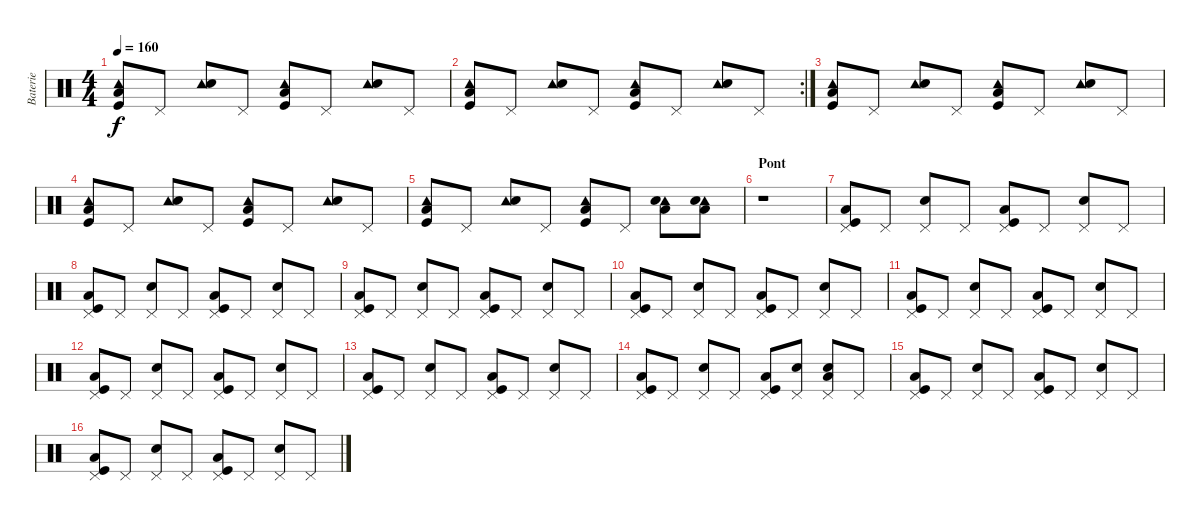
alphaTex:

\track ("Baterie" "Baterie") {instrument percussion}
\staff {score}
\articulation defaults
\ts (4 4)
\tempo 160
\clef neutral
\ks c
("Tambourine (hit)" "Low Floor Tom (hit)" "Kick (hit)").8{dy f} "Pedal Hi-Hat (hit)".8 ("Tambourine (hit)" "Electric Snare (hit)").8 "Pedal Hi-Hat (hit)".8 ("Tambourine (hit)" "Low Floor Tom (hit)" "Kick (hit)").8 "Pedal Hi-Hat (hit)".8 ("Tambourine (hit)" "Electric Snare (hit)").8 "Pedal Hi-Hat (hit)".8 |
\rc 2
("Tambourine (hit)" "Low Floor Tom (hit)" "Kick (hit)").8 "Pedal Hi-Hat (hit)".8 ("Tambourine (hit)" "Electric Snare (hit)").8 "Pedal Hi-Hat (hit)".8 ("Tambourine (hit)" "Low Floor Tom (hit)" "Kick (hit)").8 "Pedal Hi-Hat (hit)".8 ("Tambourine (hit)" "Electric Snare (hit)").8 "Pedal Hi-Hat (hit)".8 |
("Tambourine (hit)" "Low Floor Tom (hit)" "Kick (hit)").8 "Pedal Hi-Hat (hit)".8 ("Tambourine (hit)" "Electric Snare (hit)").8 "Pedal Hi-Hat (hit)".8 ("Tambourine (hit)" "Low Floor Tom (hit)" "Kick (hit)").8 "Pedal Hi-Hat (hit)".8 ("Tambourine (hit)" "Electric Snare (hit)").8 "Pedal Hi-Hat (hit)".8 |
("Tambourine (hit)" "Low Floor Tom (hit)" "Kick (hit)").8 "Pedal Hi-Hat (hit)".8 ("Tambourine (hit)" "Electric Snare (hit)").8 "Pedal Hi-Hat (hit)".8 ("Tambourine (hit)" "Low Floor Tom (hit)" "Kick (hit)").8 "Pedal Hi-Hat (hit)".8 ("Tambourine (hit)" "Electric Snare (hit)").8 "Pedal Hi-Hat (hit)".8 |
("Tambourine (hit)" "Low Floor Tom (hit)" "Kick (hit)").8 "Pedal Hi-Hat (hit)".8 ("Tambourine (hit)" "Electric Snare (hit)").8 "Pedal Hi-Hat (hit)".8 ("Tambourine (hit)" "Low Floor Tom (hit)" "Kick (hit)").8 "Pedal Hi-Hat (hit)".8 ("Tambourine (hit)" "Electric Snare (hit)" "Low Floor Tom (hit)").8 ("Tambourine (hit)" "Electric Snare (hit)" "Low Floor Tom (hit)").8 |
\section ("" "Pont")
r.1 |
("Pedal Hi-Hat (hit)" "Low Floor Tom (hit)" "Kick (hit)").8 "Pedal Hi-Hat (hit)".8 ("Pedal Hi-Hat (hit)" "Electric Snare (hit)").8 "Pedal Hi-Hat (hit)".8 ("Pedal Hi-Hat (hit)" "Low Floor Tom (hit)" "Kick (hit)").8 "Pedal Hi-Hat (hit)".8 ("Pedal Hi-Hat (hit)" "Electric Snare (hit)").8 "Pedal Hi-Hat (hit)".8 |
("Pedal Hi-Hat (hit)" "Low Floor Tom (hit)" "Kick (hit)").8 "Pedal Hi-Hat (hit)".8 ("Pedal Hi-Hat (hit)" "Electric Snare (hit)").8 "Pedal Hi-Hat (hit)".8 ("Pedal Hi-Hat (hit)" "Low Floor Tom (hit)" "Kick (hit)").8 "Pedal Hi-Hat (hit)".8 ("Pedal Hi-Hat (hit)" "Electric Snare (hit)").8 "Pedal Hi-Hat (hit)".8 |
("Pedal Hi-Hat (hit)" "Low Floor Tom (hit)" "Kick (hit)").8 "Pedal Hi-Hat (hit)".8 ("Pedal Hi-Hat (hit)" "Electric Snare (hit)").8 "Pedal Hi-Hat (hit)".8 ("Pedal Hi-Hat (hit)" "Low Floor Tom (hit)" "Kick (hit)").8 "Pedal Hi-Hat (hit)".8 ("Pedal Hi-Hat (hit)" "Electric Snare (hit)").8 "Pedal Hi-Hat (hit)".8 |
("Pedal Hi-Hat (hit)" "Low Floor Tom (hit)" "Kick (hit)").8 "Pedal Hi-Hat (hit)".8 ("Pedal Hi-Hat (hit)" "Electric Snare (hit)").8 "Pedal Hi-Hat (hit)".8 ("Pedal Hi-Hat (hit)" "Low Floor Tom (hit)" "Kick (hit)").8 "Pedal Hi-Hat (hit)".8 ("Pedal Hi-Hat (hit)" "Electric Snare (hit)").8 "Pedal Hi-Hat (hit)".8 |
("Pedal Hi-Hat (hit)" "Low Floor Tom (hit)" "Kick (hit)").8 "Pedal Hi-Hat (hit)".8 ("Pedal Hi-Hat (hit)" "Electric Snare (hit)").8 "Pedal Hi-Hat (hit)".8 ("Pedal Hi-Hat (hit)" "Low Floor Tom (hit)" "Kick (hit)").8 "Pedal Hi-Hat (hit)".8 ("Pedal Hi-Hat (hit)" "Electric Snare (hit)").8 "Pedal Hi-Hat (hit)".8 |
("Pedal Hi-Hat (hit)" "Low Floor Tom (hit)" "Kick (hit)").8 "Pedal Hi-Hat (hit)".8 ("Pedal Hi-Hat (hit)" "Electric Snare (hit)").8 "Pedal Hi-Hat (hit)".8 ("Pedal Hi-Hat (hit)" "Low Floor Tom (hit)" "Kick (hit)").8 "Pedal Hi-Hat (hit)".8 ("Pedal Hi-Hat (hit)" "Electric Snare (hit)").8 "Pedal Hi-Hat (hit)".8 |
("Pedal Hi-Hat (hit)" "Low Floor Tom (hit)" "Kick (hit)").8 "Pedal Hi-Hat (hit)".8 ("Pedal Hi-Hat (hit)" "Electric Snare (hit)").8 "Pedal Hi-Hat (hit)".8 ("Pedal Hi-Hat (hit)" "Low Floor Tom (hit)" "Kick (hit)").8 "Pedal Hi-Hat (hit)".8 ("Pedal Hi-Hat (hit)" "Electric Snare (hit)").8 "Pedal Hi-Hat (hit)".8 |
("Pedal Hi-Hat (hit)" "Low Floor Tom (hit)" "Kick (hit)").8 "Pedal Hi-Hat (hit)".8 ("Pedal Hi-Hat (hit)" "Electric Snare (hit)").8 "Pedal Hi-Hat (hit)".8 ("Pedal Hi-Hat (hit)" "Low Floor Tom (hit)" "Kick (hit)").8 ("Pedal Hi-Hat (hit)" "Electric Snare (hit)").8 ("Pedal Hi-Hat (hit)" "Electric Snare (hit)" "Low Floor Tom (hit)").8 "Pedal Hi-Hat (hit)".8 |
("Pedal Hi-Hat (hit)" "Low Floor Tom (hit)" "Kick (hit)").8 "Pedal Hi-Hat (hit)".8 ("Pedal Hi-Hat (hit)" "Electric Snare (hit)").8 "Pedal Hi-Hat (hit)".8 ("Pedal Hi-Hat (hit)" "Low Floor Tom (hit)" "Kick (hit)").8 "Pedal Hi-Hat (hit)".8 ("Pedal Hi-Hat (hit)" "Electric Snare (hit)").8 "Pedal Hi-Hat (hit)".8 |
("Pedal Hi-Hat (hit)" "Low Floor Tom (hit)" "Kick (hit)").8 "Pedal Hi-Hat (hit)".8 ("Pedal Hi-Hat (hit)" "Electric Snare (hit)").8 "Pedal Hi-Hat (hit)".8 ("Pedal Hi-Hat (hit)" "Low Floor Tom (hit)" "Kick (hit)").8 "Pedal Hi-Hat (hit)".8 ("Pedal Hi-Hat (hit)" "Electric Snare (hit)").8 "Pedal Hi-Hat (hit)".8
